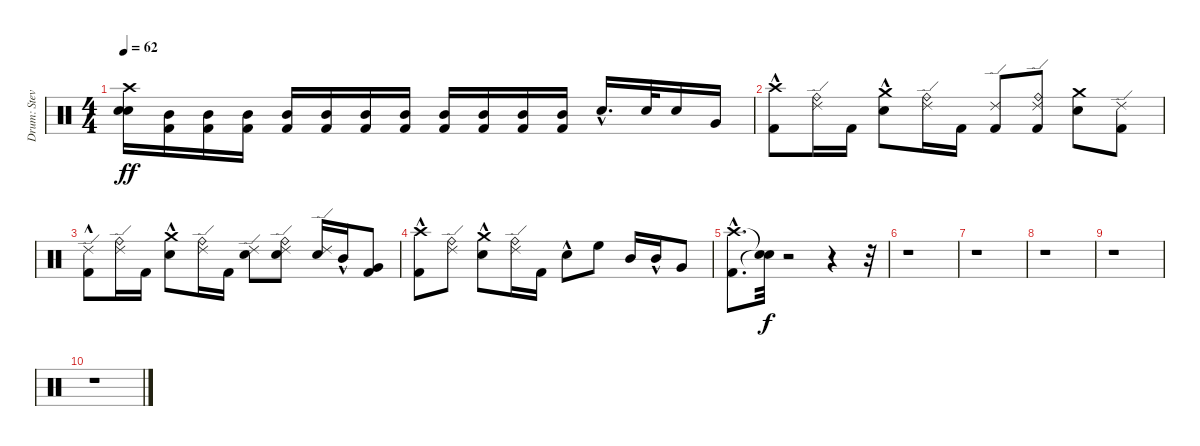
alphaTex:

\track ("Drum: Steven Adler" "Drum: Stev") {instrument percussion}
\staff {score}
\articulation defaults
\ts (4 4)
\tempo 62
\clef neutral
\ks c
("Crash high (hit)" "Snare (hit) 2" "Electric Snare (hit)").16{dy ff} ("Mid Tom (hit)" "Kick (hit) 2").16 ("Mid Tom (hit)" "Kick (hit) 2").16 ("Mid Tom (hit)" "Kick (hit) 2").16 ("Mid Tom (hit)" "Kick (hit) 2").16 ("Mid Tom (hit)" "Kick (hit) 2").16 ("Mid Tom (hit)" "Kick (hit) 2").16 ("Mid Tom (hit)" "Kick (hit) 2").16 ("Mid Tom (hit)" "Kick (hit) 2").16 ("Mid Tom (hit)" "Kick (hit) 2").16 ("Mid Tom (hit)" "Kick (hit) 2").16 ("Mid Tom (hit)" "Kick (hit) 2").16 "Snare (hit) 2"{hac}.16{d} "Snare (hit) 2".32 "Snare (hit) 2".16 "Very Low Tom (hit)".16 |
("Crash high (hit)" "Kick (hit) 2"{hac}).8 ("Ride (bell)" "Ride (edge) 2").16 "Kick (hit) 2".16 ("Crash medium (hit)" "Snare (hit) 2"{hac}).8 ("Ride (bell)" "Ride (edge) 2").16 "Kick (hit) 2".16 ("Ride (edge) 2" "Kick (hit) 2").8 ("Ride (bell)" "Ride (edge) 2" "Kick (hit) 2").8 ("Crash medium (hit)" "Snare (hit) 2").8 ("Ride (edge) 2" "Kick (hit) 2").8 |
("Ride (edge) 2" "Kick (hit) 2"{hac}).8 ("Ride (bell)" "Ride (edge) 2").16 "Kick (hit) 2".16 ("Crash medium (hit)" "Snare (hit) 2"{hac}).8 ("Ride (bell)" "Ride (edge) 2").16 "Kick (hit) 2".16 ("Ride (edge) 2" "Snare (hit) 2").8 ("Ride (bell)" "Ride (edge) 2" "Snare (hit) 2").8 ("Ride (edge) 2" "Snare (hit) 2").16 "Mid Tom (hit)"{hac}.16 ("Kick (hit) 2" "Very Low Tom (hit)").8 |
("Crash high (hit)" "Kick (hit) 2"{hac}).8 ("Ride (bell)" "Ride (edge) 2").8 ("Crash medium (hit)" "Snare (hit) 2"{hac}).8 ("Ride (bell)" "Ride (edge) 2").16 "Kick (hit) 2".16 "Snare (hit) 2"{hac}.8 "High Floor Tom (hit)".8 "Mid Tom (hit)".16 "Mid Tom (hit)"{hac}.16 "Very Low Tom (hit)".8 |
("Crash high (hit)"{hac} "Kick (hit) 2"{hac}).8{d} ("Snare (hit)"{t} "Snare (hit)"{t}).32{dy f} r.2 r.4 r.32 |
r.1 |
r.1 |
r.1 |
r.1 |
r.1
